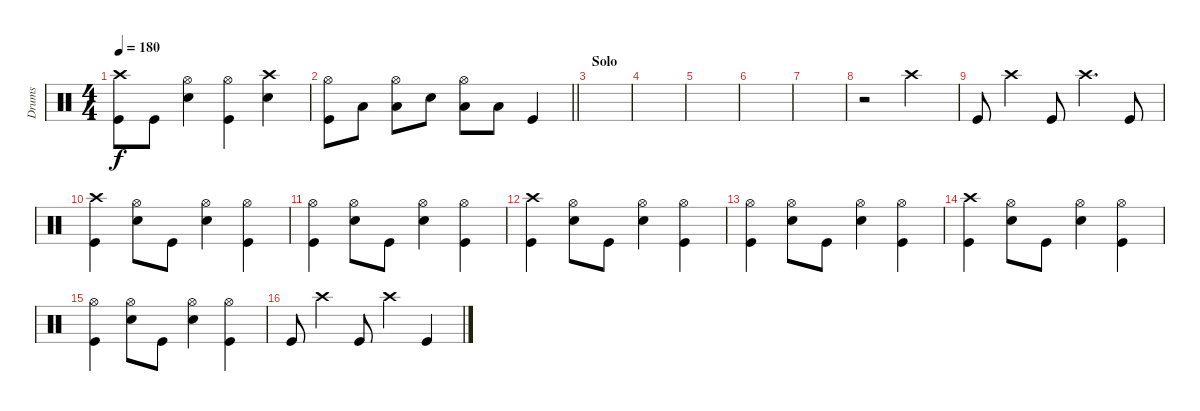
\track ("Drums" "Drums") {instrument percussion}
\staff {score}
\articulation defaults
\ts (4 4)
\tempo 180
\clef neutral
\ks c
("Crash high (hit)" "Kick (hit)").8{dy f} "Kick (hit)".8 ("Hi-Hat (open)" "Snare (hit) 2").4 ("Hi-Hat (open)" "Kick (hit)").4 ("Crash high (hit)" "Snare (hit) 2").4 |
\barLineRight lightlight
("Hi-Hat (open)" "Kick (hit)").8 "Low Tom (hit)".8 ("Hi-Hat (open)" "Low Tom (hit)").8 "Snare (hit) 2".8 ("Hi-Hat (open)" "Low Tom (hit)").8 "Low Tom (hit)".8 "Kick (hit)".4 |
\section ("" "Solo")
|
|
|
|
|
r.2 "Crash high (hit)".2 |
"Kick (hit)".8 "Crash high (hit)".4 "Kick (hit)".8 "Crash high (hit)".4{d} "Kick (hit)".8 |
("Crash high (hit)" "Kick (hit)").4 ("Hi-Hat (open)" "Snare (hit) 2").8 "Kick (hit)".8 ("Hi-Hat (open)" "Snare (hit) 2").4 ("Hi-Hat (open)" "Kick (hit)").4 |
("Hi-Hat (open)" "Kick (hit)").4 ("Hi-Hat (open)" "Snare (hit) 2").8 "Kick (hit)".8 ("Hi-Hat (open)" "Snare (hit) 2").4 ("Hi-Hat (open)" "Kick (hit)").4 |
("Crash high (hit)" "Kick (hit)").4 ("Hi-Hat (open)" "Snare (hit) 2").8 "Kick (hit)".8 ("Hi-Hat (open)" "Snare (hit) 2").4 ("Hi-Hat (open)" "Kick (hit)").4 |
("Hi-Hat (open)" "Kick (hit)").4 ("Hi-Hat (open)" "Snare (hit) 2").8 "Kick (hit)".8 ("Hi-Hat (open)" "Snare (hit) 2").4 ("Hi-Hat (open)" "Kick (hit)").4 |
("Crash high (hit)" "Kick (hit)").4 ("Hi-Hat (open)" "Snare (hit) 2").8 "Kick (hit)".8 ("Hi-Hat (open)" "Snare (hit) 2").4 ("Hi-Hat (open)" "Kick (hit)").4 |
("Hi-Hat (open)" "Kick (hit)").4 ("Hi-Hat (open)" "Snare (hit) 2").8 "Kick (hit)".8 ("Hi-Hat (open)" "Snare (hit) 2").4 ("Hi-Hat (open)" "Kick (hit)").4 |
"Kick (hit)".8 "Crash high (hit)".4 "Kick (hit)".8 "Crash high (hit)".4 "Kick (hit)".4
